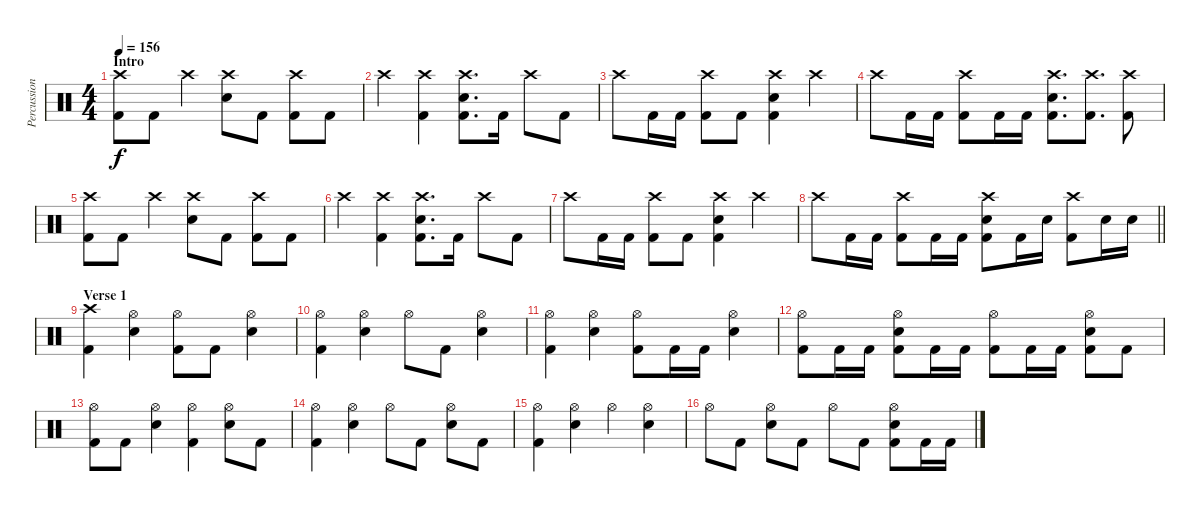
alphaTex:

\track ("Percussion" "Percussion") {instrument percussion}
\staff {score}
\articulation defaults
\ts (4 4)
\section ("" "Intro")
\tempo 156
\clef neutral
\ks c
("Crash high (hit)" "Kick (hit) 2").8{dy f} "Kick (hit) 2".8 "Crash high (hit)".4 ("Crash high (hit)" "Electric Snare (hit)").8 "Kick (hit) 2".8 ("Crash high (hit)" "Kick (hit) 2").8 "Kick (hit) 2".8 |
"Crash high (hit)".4 ("Crash high (hit)" "Kick (hit) 2").4 ("Crash high (hit)" "Electric Snare (hit)" "Kick (hit) 2").8{d} "Kick (hit) 2".16 "Crash high (hit)".8 "Kick (hit) 2".8 |
"Crash high (hit)".8 "Kick (hit) 2".16 "Kick (hit) 2".16 ("Crash high (hit)" "Kick (hit) 2").8 "Kick (hit) 2".8 ("Crash high (hit)" "Electric Snare (hit)" "Kick (hit) 2").4 "Crash high (hit)".4 |
"Crash high (hit)".8 "Kick (hit) 2".16 "Kick (hit) 2".16 ("Crash high (hit)" "Kick (hit) 2").8 "Kick (hit) 2".16 "Kick (hit) 2".16 ("Crash high (hit)" "Electric Snare (hit)" "Kick (hit) 2").8{d} ("Crash high (hit)" "Kick (hit) 2").8{d} ("Crash high (hit)" "Kick (hit) 2").8 |
("Crash high (hit)" "Kick (hit) 2").8 "Kick (hit) 2".8 "Crash high (hit)".4 ("Crash high (hit)" "Electric Snare (hit)").8 "Kick (hit) 2".8 ("Crash high (hit)" "Kick (hit) 2").8 "Kick (hit) 2".8 |
"Crash high (hit)".4 ("Crash high (hit)" "Kick (hit) 2").4 ("Crash high (hit)" "Electric Snare (hit)" "Kick (hit) 2").8{d} "Kick (hit) 2".16 "Crash high (hit)".8 "Kick (hit) 2".8 |
"Crash high (hit)".8 "Kick (hit) 2".16 "Kick (hit) 2".16 ("Crash high (hit)" "Kick (hit) 2").8 "Kick (hit) 2".8 ("Crash high (hit)" "Electric Snare (hit)" "Kick (hit) 2").4 "Crash high (hit)".4 |
\barLineRight lightlight "Crash high (hit)".8 "Kick (hit) 2".16 "Kick (hit) 2".16
("Crash high (hit)" "Kick (hit) 2").8 "Kick (hit) 2".16 "Kick (hit) 2".16 ("Crash high (hit)" "Electric Snare (hit)" "Kick (hit) 2").8 "Kick (hit) 2".16 "Electric Snare (hit)".16 ("Crash high (hit)" "Kick (hit) 2").8 "Electric Snare (hit)".16 "Electric Snare (hit)".16 |
\section ("" "Verse 1")
("Crash high (hit)" "Kick (hit) 2").4 ("Hi-Hat (open)" "Electric Snare (hit)").4 ("Hi-Hat (open)" "Kick (hit) 2").8 "Kick (hit) 2".8 ("Hi-Hat (open)" "Electric Snare (hit)").4 |
("Hi-Hat (open)" "Kick (hit) 2").4 ("Hi-Hat (open)" "Electric Snare (hit)").4 "Hi-Hat (open)".8 "Kick (hit) 2".8 ("Hi-Hat (open)" "Electric Snare (hit)").4 |
("Hi-Hat (open)" "Kick (hit) 2").4 ("Hi-Hat (open)" "Electric Snare (hit)").4 ("Hi-Hat (open)" "Kick (hit) 2").8 "Kick (hit) 2".16 "Kick (hit) 2".16 ("Hi-Hat (open)" "Electric Snare (hit)").4 |
("Hi-Hat (open)" "Kick (hit) 2").8 "Kick (hit) 2".16 "Kick (hit) 2".16 ("Hi-Hat (open)" "Electric Snare (hit)" "Kick (hit) 2").8 "Kick (hit) 2".16 "Kick (hit) 2".16 ("Hi-Hat (open)" "Kick (hit) 2").8 "Kick (hit) 2".16 "Kick (hit) 2".16 ("Hi-Hat (open)" "Electric Snare (hit)" "Kick (hit) 2").8 "Kick (hit) 2".8 |
("Hi-Hat (open)" "Kick (hit) 2").8 "Kick (hit) 2".8 ("Hi-Hat (open)" "Electric Snare (hit)").4 ("Hi-Hat (open)" "Kick (hit) 2").4 ("Hi-Hat (open)" "Electric Snare (hit)").8 "Kick (hit) 2".8 |
("Hi-Hat (open)" "Kick (hit) 2").4 ("Hi-Hat (open)" "Electric Snare (hit)").4 "Hi-Hat (open)".8 "Kick (hit) 2".8 ("Hi-Hat (open)" "Electric Snare (hit)").8 "Kick (hit) 2".8 |
("Hi-Hat (open)" "Kick (hit) 2").4 ("Hi-Hat (open)" "Electric Snare (hit)").4 "Hi-Hat (open)".4 ("Hi-Hat (open)" "Electric Snare (hit)").4 |
"Hi-Hat (open)".8 "Kick (hit) 2".8 ("Hi-Hat (open)" "Electric Snare (hit)").8 "Kick (hit) 2".8 "Hi-Hat (open)".8 "Kick (hit) 2".8 ("Hi-Hat (open)" "Electric Snare (hit)" "Kick (hit) 2").8 "Kick (hit) 2".16 "Kick (hit) 2".16
